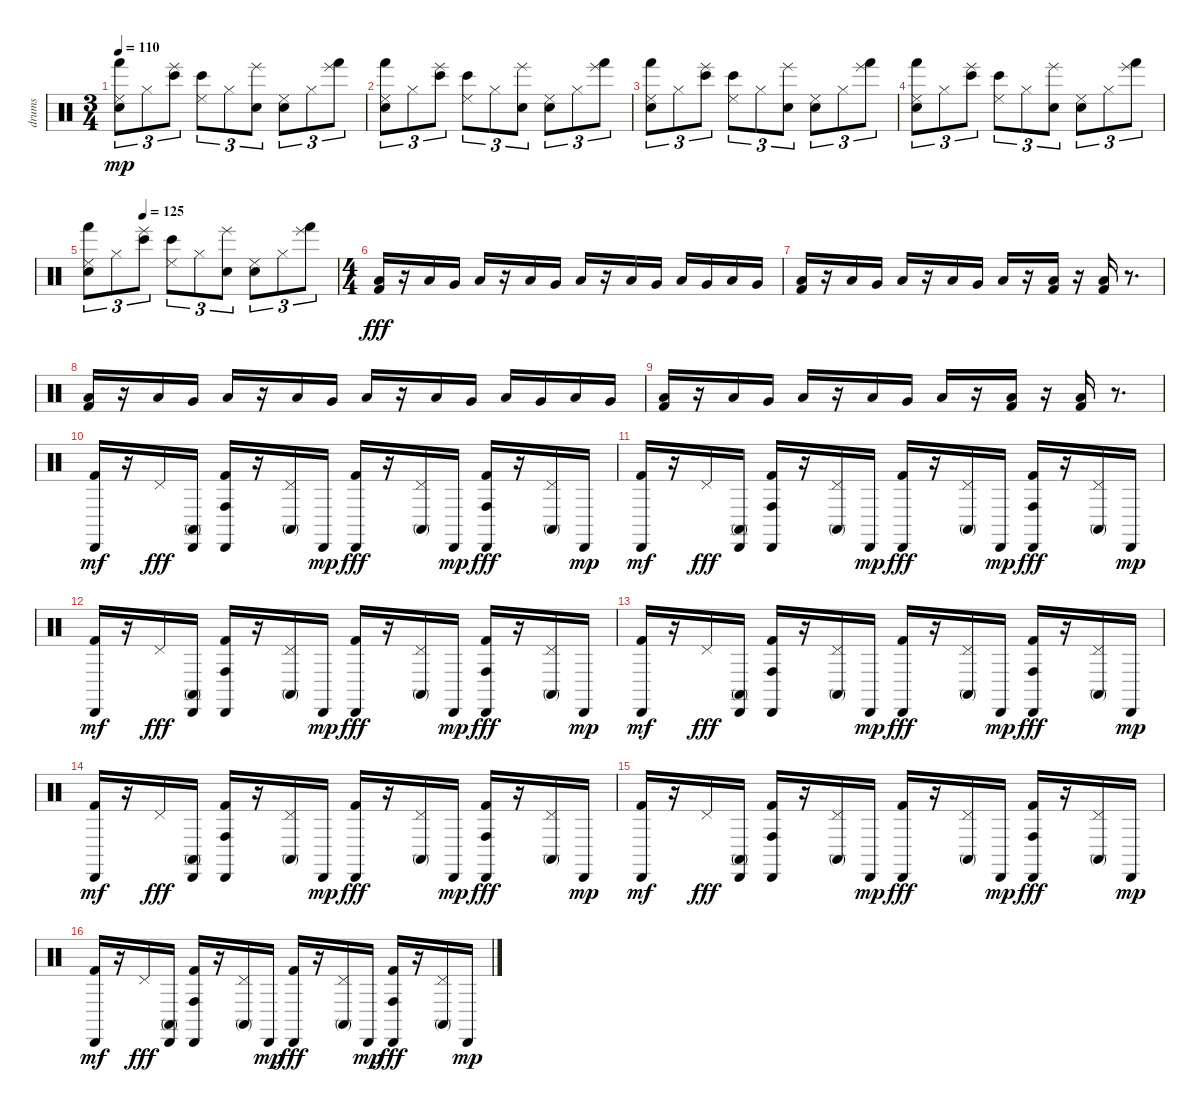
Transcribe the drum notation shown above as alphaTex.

\track ("drums" "drums") {instrument percussion}
\staff {score}
\articulation defaults
\ts (3 4)
\tempo 110
\clef neutral
\ks c
("Snare (hit)" "Hand (hit)" "Cowbell low (tip)").8{tu (3 2) dy mp} "Cowbell high (tip)".8{tu (3 2)} ("Bongo High (hit)" "Hand (slap)").8{tu (3 2)} ("Bongo High (hit)" "Cowbell low (tip)").8{tu (3 2)} "Cowbell high (tip)".8{tu (3 2)} ("Electric Snare (hit)" "Hand (slap)").8{tu (3 2)} ("Electric Snare (hit)" "Cowbell low (tip)").8{tu (3 2)} "Cowbell high (tip)".8{tu (3 2)} ("Hand (hit)" "Hand (slap)").8{tu (3 2)} |
("Snare (hit)" "Hand (hit)" "Cowbell low (tip)").8{tu (3 2)} "Cowbell high (tip)".8{tu (3 2)} ("Bongo High (hit)" "Hand (slap)").8{tu (3 2)} ("Bongo High (hit)" "Cowbell low (tip)").8{tu (3 2)} "Cowbell high (tip)".8{tu (3 2)} ("Electric Snare (hit)" "Hand (slap)").8{tu (3 2)} ("Electric Snare (hit)" "Cowbell low (tip)").8{tu (3 2)} "Cowbell high (tip)".8{tu (3 2)} ("Hand (hit)" "Hand (slap)").8{tu (3 2)} |
("Snare (hit)" "Hand (hit)" "Cowbell low (tip)").8{tu (3 2)} "Cowbell high (tip)".8{tu (3 2)} ("Bongo High (hit)" "Hand (slap)").8{tu (3 2)} ("Bongo High (hit)" "Cowbell low (tip)").8{tu (3 2)} "Cowbell high (tip)".8{tu (3 2)} ("Electric Snare (hit)" "Hand (slap)").8{tu (3 2)} ("Electric Snare (hit)" "Cowbell low (tip)").8{tu (3 2)} "Cowbell high (tip)".8{tu (3 2)} ("Hand (hit)" "Hand (slap)").8{tu (3 2)} |
("Snare (hit)" "Hand (hit)" "Cowbell low (tip)").8{tu (3 2)} "Cowbell high (tip)".8{tu (3 2)} ("Bongo High (hit)" "Hand (slap)").8{tu (3 2)} ("Bongo High (hit)" "Cowbell low (tip)").8{tu (3 2)} "Cowbell high (tip)".8{tu (3 2)} ("Electric Snare (hit)" "Hand (slap)").8{tu (3 2)} ("Electric Snare (hit)" "Cowbell low (tip)").8{tu (3 2)} "Cowbell high (tip)".8{tu (3 2)} ("Hand (hit)" "Hand (slap)").8{tu (3 2)} |
\tempo (125 0.2222222222222222)
("Snare (hit)" "Hand (hit)" "Cowbell low (tip)").8{tu (3 2)} "Cowbell high (tip)".8{tu (3 2)} ("Bongo High (hit)" "Hand (slap)").8{tu (3 2)} ("Bongo High (hit)" "Cowbell low (tip)").8{tu (3 2)} "Cowbell high (tip)".8{tu (3 2)} ("Electric Snare (hit)" "Hand (slap)").8{tu (3 2)} ("Electric Snare (hit)" "Cowbell low (tip)").8{tu (3 2)} "Cowbell high (tip)".8{tu (3 2)} ("Hand (hit)" "Hand (slap)").8{tu (3 2)} |
\ts (4 4)
("Low Tom (hit)" "Kick (hit) 2").16{dy fff volume 16} r.16 "Low Tom (hit)".16 "Very Low Tom (hit)".16 "Low Tom (hit)".16 r.16 "Low Tom (hit)".16 "Very Low Tom (hit)".16 "Low Tom (hit)".16 r.16 "Low Tom (hit)".16 "Very Low Tom (hit)".16 "Low Tom (hit)".16 "Very Low Tom (hit)".16 "Low Tom (hit)".16 "Very Low Tom (hit)".16 |
("Low Tom (hit)" "Kick (hit) 2").16 r.16 "Low Tom (hit)".16 "Very Low Tom (hit)".16 "Low Tom (hit)".16 r.16 "Low Tom (hit)".16 "Very Low Tom (hit)".16 "Low Tom (hit)".16 r.16 ("Low Tom (hit)" "Kick (hit) 2").16 r.16 ("Low Tom (hit)" "Kick (hit) 2").16 r.8{d} |
("Low Tom (hit)" "Kick (hit) 2").16 r.16 "Low Tom (hit)".16 "Very Low Tom (hit)".16 "Low Tom (hit)".16 r.16 "Low Tom (hit)".16 "Very Low Tom (hit)".16 "Low Tom (hit)".16 r.16 "Low Tom (hit)".16 "Very Low Tom (hit)".16 "Low Tom (hit)".16 "Very Low Tom (hit)".16 "Low Tom (hit)".16 "Very Low Tom (hit)".16 |
("Low Tom (hit)" "Kick (hit) 2").16 r.16 "Low Tom (hit)".16 "Very Low Tom (hit)".16 "Low Tom (hit)".16 r.16 "Low Tom (hit)".16 "Very Low Tom (hit)".16 "Low Tom (hit)".16 r.16 ("Low Tom (hit)" "Kick (hit) 2").16 r.16 ("Low Tom (hit)" "Kick (hit) 2").16 r.8{d} |
("Kick (hit) 2" "Cabasa (hit)").16{dy mf volume 11} r.16 "Pedal Hi-Hat (hit)".16{dy fff} ("Cabasa (hit)" "Conga high (mute)").16 ("Conga high (hit)" "Cabasa (hit)" "Kick (hit) 2").16 r.16 ("Conga high (mute)" "Pedal Hi-Hat (hit)").16 "Cabasa (hit)".16{dy mp} ("Cabasa (hit)" "Kick (hit) 2").16{dy fff} r.16 ("Conga high (mute)" "Pedal Hi-Hat (hit)").16 "Cabasa (hit)".16{dy mp} ("Cabasa (hit)" "Conga high (hit)" "Kick (hit) 2").16{dy fff} r.16 ("Conga high (mute)" "Pedal Hi-Hat (hit)").16 "Cabasa (hit)".16{dy mp} |
("Kick (hit) 2" "Cabasa (hit)").16{dy mf} r.16 "Pedal Hi-Hat (hit)".16{dy fff} ("Cabasa (hit)" "Conga high (mute)").16 ("Conga high (hit)" "Cabasa (hit)" "Kick (hit) 2").16 r.16 ("Conga high (mute)" "Pedal Hi-Hat (hit)").16 "Cabasa (hit)".16{dy mp} ("Cabasa (hit)" "Kick (hit) 2").16{dy fff} r.16 ("Conga high (mute)" "Pedal Hi-Hat (hit)").16 "Cabasa (hit)".16{dy mp} ("Cabasa (hit)" "Conga high (hit)" "Kick (hit) 2").16{dy fff} r.16 ("Conga high (mute)" "Pedal Hi-Hat (hit)").16 "Cabasa (hit)".16{dy mp} |
("Kick (hit) 2" "Cabasa (hit)").16{dy mf} r.16 "Pedal Hi-Hat (hit)".16{dy fff} ("Cabasa (hit)" "Conga high (mute)").16 ("Conga high (hit)" "Cabasa (hit)" "Kick (hit) 2").16 r.16 ("Conga high (mute)" "Pedal Hi-Hat (hit)").16 "Cabasa (hit)".16{dy mp} ("Cabasa (hit)" "Kick (hit) 2").16{dy fff} r.16 ("Conga high (mute)" "Pedal Hi-Hat (hit)").16 "Cabasa (hit)".16{dy mp} ("Cabasa (hit)" "Conga high (hit)" "Kick (hit) 2").16{dy fff} r.16 ("Conga high (mute)" "Pedal Hi-Hat (hit)").16 "Cabasa (hit)".16{dy mp} |
("Kick (hit) 2" "Cabasa (hit)").16{dy mf} r.16 "Pedal Hi-Hat (hit)".16{dy fff} ("Cabasa (hit)" "Conga high (mute)").16 ("Conga high (hit)" "Cabasa (hit)" "Kick (hit) 2").16 r.16 ("Conga high (mute)" "Pedal Hi-Hat (hit)").16 "Cabasa (hit)".16{dy mp} ("Cabasa (hit)" "Kick (hit) 2").16{dy fff} r.16 ("Conga high (mute)" "Pedal Hi-Hat (hit)").16 "Cabasa (hit)".16{dy mp} ("Cabasa (hit)" "Conga high (hit)" "Kick (hit) 2").16{dy fff} r.16 ("Conga high (mute)" "Pedal Hi-Hat (hit)").16 "Cabasa (hit)".16{dy mp} |
("Kick (hit) 2" "Cabasa (hit)").16{dy mf} r.16 "Pedal Hi-Hat (hit)".16{dy fff} ("Cabasa (hit)" "Conga high (mute)").16 ("Conga high (hit)" "Cabasa (hit)" "Kick (hit) 2").16 r.16 ("Conga high (mute)" "Pedal Hi-Hat (hit)").16 "Cabasa (hit)".16{dy mp} ("Cabasa (hit)" "Kick (hit) 2").16{dy fff} r.16 ("Conga high (mute)" "Pedal Hi-Hat (hit)").16 "Cabasa (hit)".16{dy mp} ("Cabasa (hit)" "Conga high (hit)" "Kick (hit) 2").16{dy fff} r.16 ("Conga high (mute)" "Pedal Hi-Hat (hit)").16 "Cabasa (hit)".16{dy mp} |
("Kick (hit) 2" "Cabasa (hit)").16{dy mf} r.16 "Pedal Hi-Hat (hit)".16{dy fff} ("Cabasa (hit)" "Conga high (mute)").16 ("Conga high (hit)" "Cabasa (hit)" "Kick (hit) 2").16 r.16 ("Conga high (mute)" "Pedal Hi-Hat (hit)").16 "Cabasa (hit)".16{dy mp} ("Cabasa (hit)" "Kick (hit) 2").16{dy fff} r.16 ("Conga high (mute)" "Pedal Hi-Hat (hit)").16 "Cabasa (hit)".16{dy mp} ("Cabasa (hit)" "Conga high (hit)" "Kick (hit) 2").16{dy fff} r.16 ("Conga high (mute)" "Pedal Hi-Hat (hit)").16 "Cabasa (hit)".16{dy mp} |
("Kick (hit) 2" "Cabasa (hit)").16{dy mf} r.16 "Pedal Hi-Hat (hit)".16{dy fff} ("Cabasa (hit)" "Conga high (mute)").16 ("Conga high (hit)" "Cabasa (hit)" "Kick (hit) 2").16 r.16 ("Conga high (mute)" "Pedal Hi-Hat (hit)").16 "Cabasa (hit)".16{dy mp} ("Cabasa (hit)" "Kick (hit) 2").16{dy fff} r.16 ("Conga high (mute)" "Pedal Hi-Hat (hit)").16 "Cabasa (hit)".16{dy mp} ("Cabasa (hit)" "Conga high (hit)" "Kick (hit) 2").16{dy fff} r.16 ("Conga high (mute)" "Pedal Hi-Hat (hit)").16 "Cabasa (hit)".16{dy mp}
